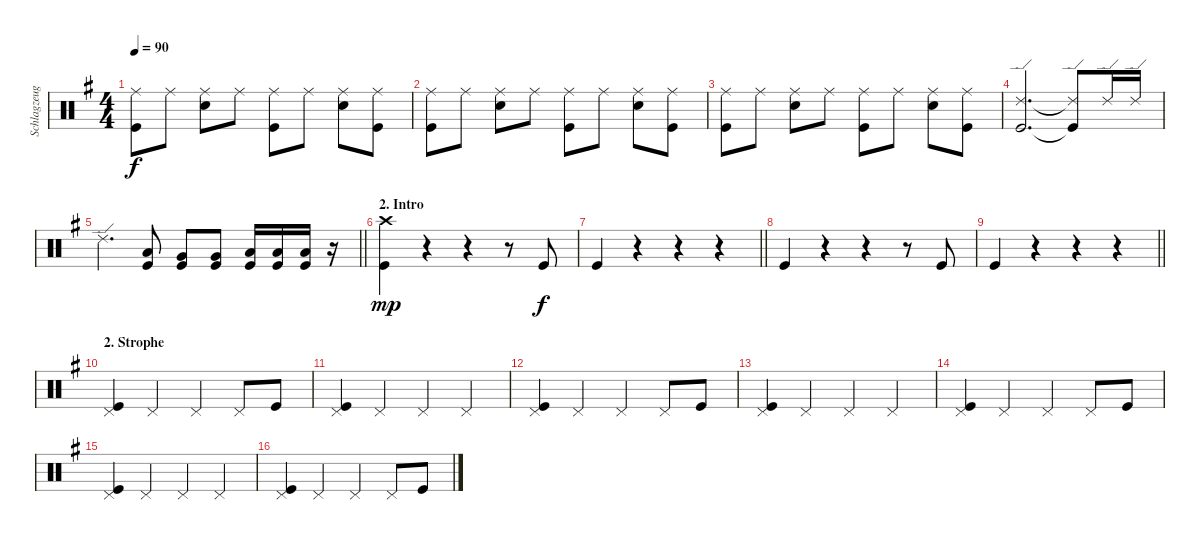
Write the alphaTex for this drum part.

\track ("Schlagzeug" "Schlagzeug") {instrument percussion}
\staff {score}
\articulation defaults
\ts (4 4)
\tempo 90
\clef neutral
\ks g
("Ride (middle)" "Kick (hit)").8{dy f} "Ride (middle)".8 ("Ride (middle)" "Snare (hit) 2").8 "Ride (middle)".8 ("Ride (middle)" "Kick (hit)").8 "Ride (middle)".8 ("Ride (middle)" "Snare (hit) 2").8 ("Ride (middle)" "Kick (hit)").8 |
("Ride (middle)" "Kick (hit)").8 "Ride (middle)".8 ("Ride (middle)" "Snare (hit) 2").8 "Ride (middle)".8 ("Ride (middle)" "Kick (hit)").8 "Ride (middle)".8 ("Ride (middle)" "Snare (hit) 2").8 ("Ride (middle)" "Kick (hit)").8 |
("Ride (middle)" "Kick (hit)").8 "Ride (middle)".8 ("Ride (middle)" "Snare (hit) 2").8 "Ride (middle)".8 ("Ride (middle)" "Kick (hit)").8 "Ride (middle)".8 ("Ride (middle)" "Snare (hit) 2").8 ("Ride (middle)" "Kick (hit)").8 |
("Ride (edge) 2" "Kick (hit)").2{d} ("Ride (edge) 2"{t} "Kick (hit)"{t}).8 "Ride (edge) 2".16 "Ride (edge) 2".16 |
\barLineRight lightlight "Ride (edge) 2".4{d}
("Low Floor Tom (hit)" "Kick (hit)").8 ("Very Low Tom (hit)" "Kick (hit)").8 ("Very Low Tom (hit)" "Kick (hit)").8 ("Low Tom (hit)" "Kick (hit)").16 ("Low Tom (hit)" "Kick (hit)").16 ("Low Tom (hit)" "Kick (hit)").16 r.16 |
\section ("" "2. Intro")
("Crash high (hit)" "Kick (hit)").4{dy mp} r.4 r.4 r.8 "Kick (hit)".8{dy f} |
\barLineRight lightlight "Kick (hit)".4
r.4 r.4 r.4 |
"Kick (hit)".4 r.4 r.4 r.8 "Kick (hit)".8 |
\barLineRight lightlight "Kick (hit)".4
r.4 r.4 r.4 |
\section ("" "2. Strophe")
("Pedal Hi-Hat (hit)" "Kick (hit)").4 "Pedal Hi-Hat (hit)".4 "Pedal Hi-Hat (hit)".4 "Pedal Hi-Hat (hit)".8 "Kick (hit)".8 |
("Pedal Hi-Hat (hit)" "Kick (hit)").4 "Pedal Hi-Hat (hit)".4 "Pedal Hi-Hat (hit)".4 "Pedal Hi-Hat (hit)".4 |
("Pedal Hi-Hat (hit)" "Kick (hit)").4 "Pedal Hi-Hat (hit)".4 "Pedal Hi-Hat (hit)".4 "Pedal Hi-Hat (hit)".8 "Kick (hit)".8 |
("Pedal Hi-Hat (hit)" "Kick (hit)").4 "Pedal Hi-Hat (hit)".4 "Pedal Hi-Hat (hit)".4 "Pedal Hi-Hat (hit)".4 |
("Pedal Hi-Hat (hit)" "Kick (hit)").4 "Pedal Hi-Hat (hit)".4 "Pedal Hi-Hat (hit)".4 "Pedal Hi-Hat (hit)".8 "Kick (hit)".8 |
("Pedal Hi-Hat (hit)" "Kick (hit)").4 "Pedal Hi-Hat (hit)".4 "Pedal Hi-Hat (hit)".4 "Pedal Hi-Hat (hit)".4 |
("Pedal Hi-Hat (hit)" "Kick (hit)").4 "Pedal Hi-Hat (hit)".4 "Pedal Hi-Hat (hit)".4 "Pedal Hi-Hat (hit)".8 "Kick (hit)".8
